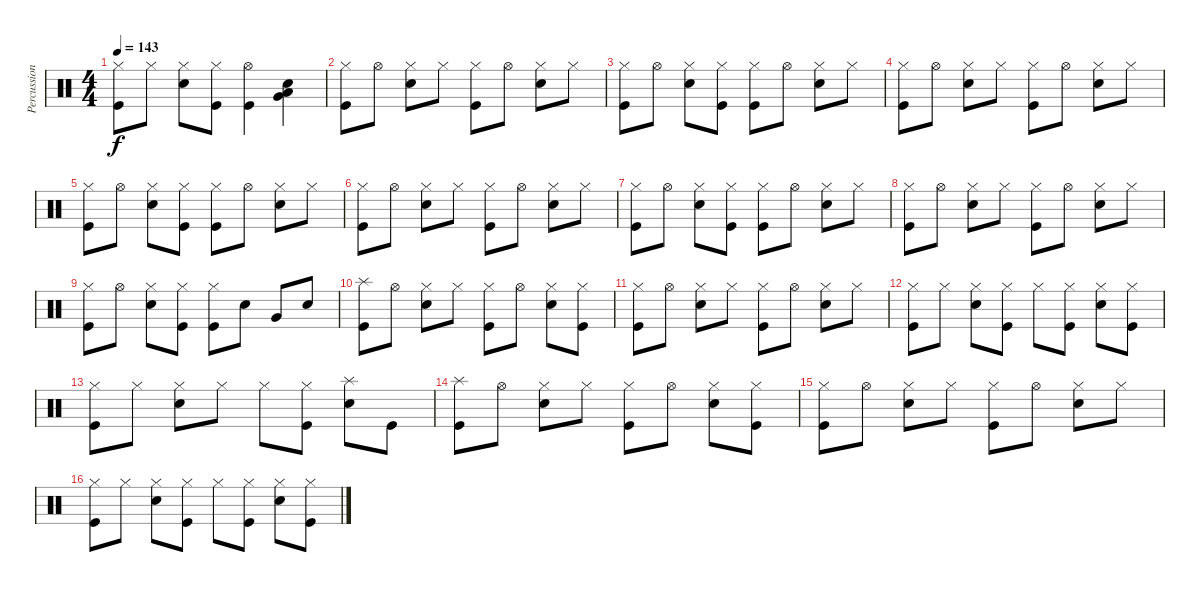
\track ("Percussion" "Percussion") {instrument percussion}
\staff {score}
\articulation defaults
\ts (4 4)
\tempo 143
\clef neutral
\ks c
("Hi-Hat (closed)" "Kick (hit)").8{dy f} "Hi-Hat (closed)".8 ("Hi-Hat (closed)" "Snare (hit) 2").8 ("Hi-Hat (closed)" "Kick (hit)").8 ("Hi-Hat (open)" "Kick (hit)").4 ("Very Low Tom (hit)" "Snare (hit) 2" "Low Tom (hit)").4 |
("Hi-Hat (closed)" "Kick (hit)").8 "Hi-Hat (open)".8 ("Hi-Hat (closed)" "Snare (hit) 2").8 "Hi-Hat (closed)".8 ("Hi-Hat (closed)" "Kick (hit)").8 "Hi-Hat (open)".8 ("Hi-Hat (closed)" "Snare (hit) 2").8 "Hi-Hat (closed)".8 |
("Hi-Hat (closed)" "Kick (hit)").8 "Hi-Hat (open)".8 ("Hi-Hat (closed)" "Snare (hit) 2").8 ("Hi-Hat (closed)" "Kick (hit)").8 ("Hi-Hat (closed)" "Kick (hit)").8 "Hi-Hat (open)".8 ("Hi-Hat (closed)" "Snare (hit) 2").8 "Hi-Hat (closed)".8 |
("Hi-Hat (closed)" "Kick (hit)").8 "Hi-Hat (open)".8 ("Hi-Hat (closed)" "Snare (hit) 2").8 "Hi-Hat (closed)".8 ("Hi-Hat (closed)" "Kick (hit)").8 "Hi-Hat (open)".8 ("Hi-Hat (closed)" "Snare (hit) 2").8 "Hi-Hat (closed)".8 |
("Hi-Hat (closed)" "Kick (hit)").8 "Hi-Hat (open)".8 ("Hi-Hat (closed)" "Snare (hit) 2").8 ("Hi-Hat (closed)" "Kick (hit)").8 ("Hi-Hat (closed)" "Kick (hit)").8 "Hi-Hat (open)".8 ("Hi-Hat (closed)" "Snare (hit) 2").8 "Hi-Hat (closed)".8 |
("Hi-Hat (closed)" "Kick (hit)").8 "Hi-Hat (open)".8 ("Hi-Hat (closed)" "Snare (hit) 2").8 "Hi-Hat (closed)".8 ("Hi-Hat (closed)" "Kick (hit)").8 "Hi-Hat (open)".8 ("Hi-Hat (closed)" "Snare (hit) 2").8 "Hi-Hat (closed)".8 |
("Hi-Hat (closed)" "Kick (hit)").8 "Hi-Hat (open)".8 ("Hi-Hat (closed)" "Snare (hit) 2").8 ("Hi-Hat (closed)" "Kick (hit)").8 ("Hi-Hat (closed)" "Kick (hit)").8 "Hi-Hat (open)".8 ("Hi-Hat (closed)" "Snare (hit) 2").8 "Hi-Hat (closed)".8 |
("Hi-Hat (closed)" "Kick (hit)").8 "Hi-Hat (open)".8 ("Hi-Hat (closed)" "Snare (hit) 2").8 "Hi-Hat (closed)".8 ("Hi-Hat (closed)" "Kick (hit)").8 "Hi-Hat (open)".8 ("Hi-Hat (closed)" "Snare (hit) 2").8 "Hi-Hat (closed)".8 |
("Hi-Hat (closed)" "Kick (hit)").8 "Hi-Hat (open)".8 ("Hi-Hat (closed)" "Snare (hit) 2").8 ("Hi-Hat (closed)" "Kick (hit)").8 ("Hi-Hat (closed)" "Kick (hit)").8 "Snare (hit) 2".8 "Very Low Tom (hit)".8 "Snare (hit) 2".8 |
("Splash (hit)" "Kick (hit)").8 "Hi-Hat (open)".8 ("Hi-Hat (closed)" "Snare (hit) 2").8 "Hi-Hat (closed)".8 ("Hi-Hat (closed)" "Kick (hit)").8 "Hi-Hat (open)".8 ("Hi-Hat (closed)" "Snare (hit) 2").8 ("Hi-Hat (closed)" "Kick (hit)").8 |
("Hi-Hat (closed)" "Kick (hit)").8 "Hi-Hat (open)".8 ("Hi-Hat (closed)" "Snare (hit) 2").8 "Hi-Hat (closed)".8 ("Hi-Hat (closed)" "Kick (hit)").8 "Hi-Hat (open)".8 ("Hi-Hat (closed)" "Snare (hit) 2").8 "Hi-Hat (closed)".8 |
("Hi-Hat (closed)" "Kick (hit)").8 "Hi-Hat (closed)".8 ("Hi-Hat (closed)" "Snare (hit) 2").8 ("Hi-Hat (closed)" "Kick (hit)").8 "Hi-Hat (closed)".8 ("Hi-Hat (closed)" "Kick (hit)").8 ("Hi-Hat (closed)" "Snare (hit) 2").8 ("Hi-Hat (closed)" "Kick (hit)").8 |
("Hi-Hat (closed)" "Kick (hit)").8 "Hi-Hat (closed)".8 ("Hi-Hat (closed)" "Snare (hit) 2").8 "Hi-Hat (closed)".8 "Hi-Hat (closed)".8 ("Hi-Hat (closed)" "Kick (hit)").8 ("Splash (hit)" "Snare (hit) 2").8 "Kick (hit)".8 |
("Splash (hit)" "Kick (hit)").8 "Hi-Hat (open)".8 ("Hi-Hat (closed)" "Snare (hit) 2").8 "Hi-Hat (closed)".8 ("Hi-Hat (closed)" "Kick (hit)").8 "Hi-Hat (open)".8 ("Hi-Hat (closed)" "Snare (hit) 2").8 ("Hi-Hat (closed)" "Kick (hit)").8 |
("Hi-Hat (closed)" "Kick (hit)").8 "Hi-Hat (open)".8 ("Hi-Hat (closed)" "Snare (hit) 2").8 "Hi-Hat (closed)".8 ("Hi-Hat (closed)" "Kick (hit)").8 "Hi-Hat (open)".8 ("Hi-Hat (closed)" "Snare (hit) 2").8 "Hi-Hat (closed)".8 |
("Hi-Hat (closed)" "Kick (hit)").8 "Hi-Hat (closed)".8 ("Hi-Hat (closed)" "Snare (hit) 2").8 ("Hi-Hat (closed)" "Kick (hit)").8 "Hi-Hat (closed)".8 ("Hi-Hat (closed)" "Kick (hit)").8 ("Hi-Hat (closed)" "Snare (hit) 2").8 ("Hi-Hat (closed)" "Kick (hit)").8
